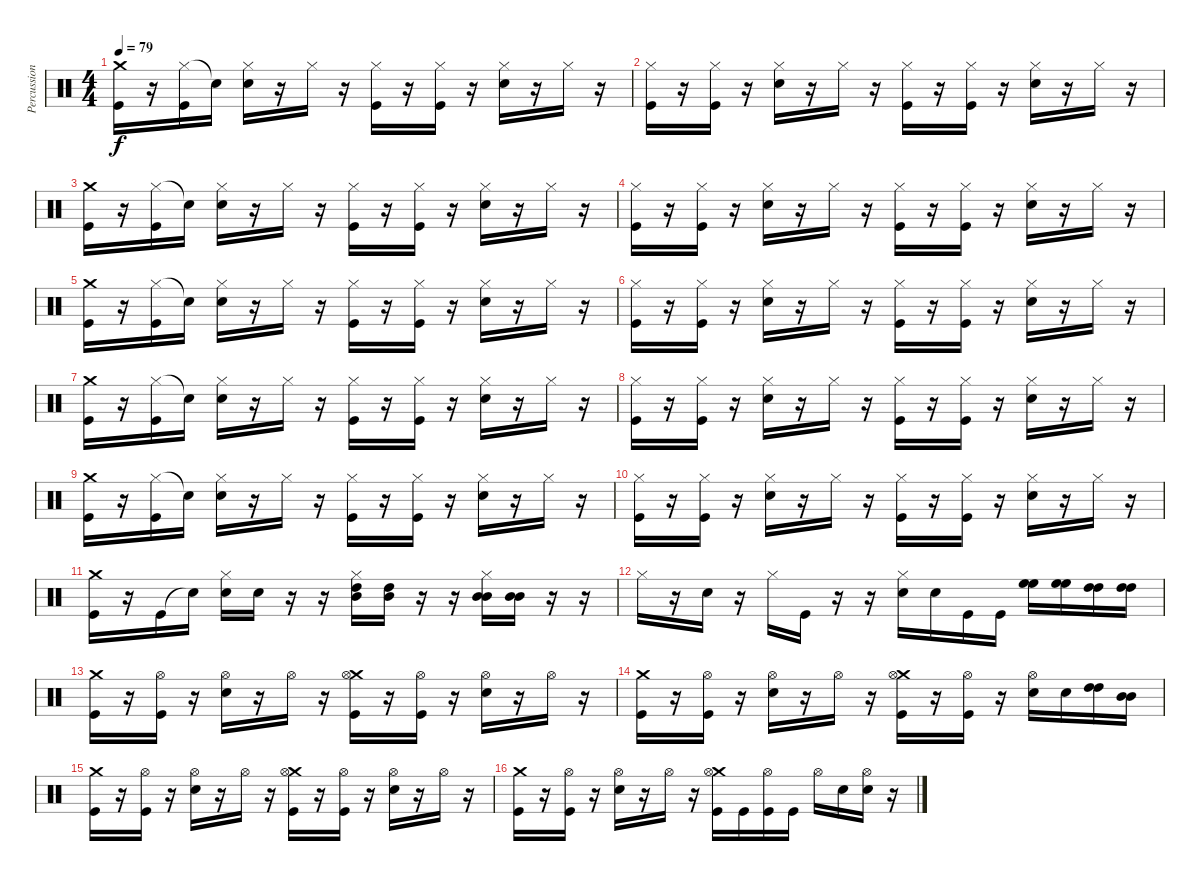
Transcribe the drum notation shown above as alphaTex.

\track ("Percussion" "Percussion") {instrument percussion}
\staff {score}
\articulation defaults
\ts (4 4)
\tempo 79
\clef neutral
\ks c
("Crash medium (hit)" "Kick (hit)").16{dy f} r.16 ("Hi-Hat (closed)" "Kick (hit)").16 "Snare (hit)"{t}.16 ("Hi-Hat (closed)" "Electric Snare (hit)").16 r.16 "Hi-Hat (closed)".16 r.16 ("Hi-Hat (closed)" "Kick (hit)").16 r.16 ("Hi-Hat (closed)" "Kick (hit)").16 r.16 ("Hi-Hat (closed)" "Electric Snare (hit)").16 r.16 "Hi-Hat (closed)".16 r.16 |
("Hi-Hat (closed)" "Kick (hit)").16 r.16 ("Hi-Hat (closed)" "Kick (hit)").16 r.16 ("Hi-Hat (closed)" "Electric Snare (hit)").16 r.16 "Hi-Hat (closed)".16 r.16 ("Hi-Hat (closed)" "Kick (hit)").16 r.16 ("Hi-Hat (closed)" "Kick (hit)").16 r.16 ("Hi-Hat (closed)" "Electric Snare (hit)").16 r.16 "Hi-Hat (closed)".16 r.16 |
("Crash medium (hit)" "Kick (hit)").16 r.16 ("Hi-Hat (closed)" "Kick (hit)").16 "Snare (hit)"{t}.16 ("Hi-Hat (closed)" "Electric Snare (hit)").16 r.16 "Hi-Hat (closed)".16 r.16 ("Hi-Hat (closed)" "Kick (hit)").16 r.16 ("Hi-Hat (closed)" "Kick (hit)").16 r.16 ("Hi-Hat (closed)" "Electric Snare (hit)").16 r.16 "Hi-Hat (closed)".16 r.16 |
("Hi-Hat (closed)" "Kick (hit)").16 r.16 ("Hi-Hat (closed)" "Kick (hit)").16 r.16 ("Hi-Hat (closed)" "Electric Snare (hit)").16 r.16 "Hi-Hat (closed)".16 r.16 ("Hi-Hat (closed)" "Kick (hit)").16 r.16 ("Hi-Hat (closed)" "Kick (hit)").16 r.16 ("Hi-Hat (closed)" "Electric Snare (hit)").16 r.16 "Hi-Hat (closed)".16 r.16 |
("Crash medium (hit)" "Kick (hit)").16 r.16 ("Hi-Hat (closed)" "Kick (hit)").16 "Snare (hit)"{t}.16 ("Hi-Hat (closed)" "Electric Snare (hit)").16 r.16 "Hi-Hat (closed)".16 r.16 ("Hi-Hat (closed)" "Kick (hit)").16 r.16 ("Hi-Hat (closed)" "Kick (hit)").16 r.16 ("Hi-Hat (closed)" "Electric Snare (hit)").16 r.16 "Hi-Hat (closed)".16 r.16 |
("Hi-Hat (closed)" "Kick (hit)").16 r.16 ("Hi-Hat (closed)" "Kick (hit)").16 r.16 ("Hi-Hat (closed)" "Electric Snare (hit)").16 r.16 "Hi-Hat (closed)".16 r.16 ("Hi-Hat (closed)" "Kick (hit)").16 r.16 ("Hi-Hat (closed)" "Kick (hit)").16 r.16 ("Hi-Hat (closed)" "Electric Snare (hit)").16 r.16 "Hi-Hat (closed)".16 r.16 |
("Crash medium (hit)" "Kick (hit)").16 r.16 ("Hi-Hat (closed)" "Kick (hit)").16 "Snare (hit)"{t}.16 ("Hi-Hat (closed)" "Electric Snare (hit)").16 r.16 "Hi-Hat (closed)".16 r.16 ("Hi-Hat (closed)" "Kick (hit)").16 r.16 ("Hi-Hat (closed)" "Kick (hit)").16 r.16 ("Hi-Hat (closed)" "Electric Snare (hit)").16 r.16 "Hi-Hat (closed)".16 r.16 |
("Hi-Hat (closed)" "Kick (hit)").16 r.16 ("Hi-Hat (closed)" "Kick (hit)").16 r.16 ("Hi-Hat (closed)" "Electric Snare (hit)").16 r.16 "Hi-Hat (closed)".16 r.16 ("Hi-Hat (closed)" "Kick (hit)").16 r.16 ("Hi-Hat (closed)" "Kick (hit)").16 r.16 ("Hi-Hat (closed)" "Electric Snare (hit)").16 r.16 "Hi-Hat (closed)".16 r.16 |
("Crash medium (hit)" "Kick (hit)").16 r.16 ("Hi-Hat (closed)" "Kick (hit)").16 "Snare (hit)"{t}.16 ("Hi-Hat (closed)" "Electric Snare (hit)").16 r.16 "Hi-Hat (closed)".16 r.16 ("Hi-Hat (closed)" "Kick (hit)").16 r.16 ("Hi-Hat (closed)" "Kick (hit)").16 r.16 ("Hi-Hat (closed)" "Electric Snare (hit)").16 r.16 "Hi-Hat (closed)".16 r.16 |
("Hi-Hat (closed)" "Kick (hit)").16 r.16 ("Hi-Hat (closed)" "Kick (hit)").16 r.16 ("Hi-Hat (closed)" "Electric Snare (hit)").16 r.16 "Hi-Hat (closed)".16 r.16 ("Hi-Hat (closed)" "Kick (hit)").16 r.16 ("Hi-Hat (closed)" "Kick (hit)").16 r.16 ("Hi-Hat (closed)" "Electric Snare (hit)").16 r.16 "Hi-Hat (closed)".16 r.16 |
("Crash medium (hit)" "Kick (hit)").16 r.16 "Kick (hit)".16 "Snare (hit)"{t}.16 ("Hi-Hat (closed)" "Electric Snare (hit)").16 "Electric Snare (hit)".16 r.16 r.16 ("Hi-Hat (closed)" "High Tom (hit)" "Mid Tom (hit)").16{bd 480} ("High Tom (hit)" "Mid Tom (hit)").16{bd 480} r.16 r.16 ("Hi-Hat (closed)" "Mid Tom (hit)" "Mid Tom (hit)").16{bd 480} ("Mid Tom (hit)" "Mid Tom (hit)").16{bd 480} r.16 r.16 |
"Hi-Hat (closed)".16 r.16 "Electric Snare (hit)".16 r.16 "Hi-Hat (closed)".16 "Kick (hit)".16 r.16 r.16 ("Hi-Hat (closed)" "Electric Snare (hit)").16 "Electric Snare (hit)".16 "Kick (hit)".16 "Kick (hit)".16 ("High Floor Tom (hit)" "High Floor Tom (hit)").16 ("High Floor Tom (hit)" "High Floor Tom (hit)").16 ("High Tom (hit)" "High Tom (hit)").16 ("High Tom (hit)" "High Tom (hit)").16 |
("Crash medium (hit)" "Kick (hit)").16 r.16 ("Hi-Hat (open)" "Kick (hit)").16 r.16 ("Hi-Hat (open)" "Electric Snare (hit)").16 r.16 "Hi-Hat (open)".16 r.16 ("Crash medium (hit)" "Hi-Hat (open)" "Kick (hit)").16 r.16 ("Hi-Hat (open)" "Kick (hit)").16 r.16 ("Hi-Hat (open)" "Electric Snare (hit)").16 r.16 "Hi-Hat (open)".16 r.16 |
("Crash medium (hit)" "Kick (hit)").16 r.16 ("Hi-Hat (open)" "Kick (hit)").16 r.16 ("Hi-Hat (open)" "Electric Snare (hit)").16 r.16 "Hi-Hat (open)".16 r.16 ("Crash medium (hit)" "Hi-Hat (open)" "Kick (hit)").16 r.16 ("Hi-Hat (open)" "Kick (hit)").16 r.16 ("Hi-Hat (open)" "Electric Snare (hit)").16 "Electric Snare (hit)".16 ("High Tom (hit)" "High Tom (hit)").16 ("Mid Tom (hit)" "Mid Tom (hit)").16 |
("Crash medium (hit)" "Kick (hit)").16 r.16 ("Hi-Hat (open)" "Kick (hit)").16 r.16 ("Hi-Hat (open)" "Electric Snare (hit)").16 r.16 "Hi-Hat (open)".16 r.16 ("Crash medium (hit)" "Hi-Hat (open)" "Kick (hit)").16 r.16 ("Hi-Hat (open)" "Kick (hit)").16 r.16 ("Hi-Hat (open)" "Electric Snare (hit)").16 r.16 "Hi-Hat (open)".16 r.16 |
("Crash medium (hit)" "Kick (hit)").16 r.16 ("Hi-Hat (open)" "Kick (hit)").16 r.16 ("Hi-Hat (open)" "Electric Snare (hit)").16 r.16 "Hi-Hat (open)".16 r.16 ("Crash medium (hit)" "Hi-Hat (open)" "Kick (hit)").16 "Kick (hit)".16 ("Hi-Hat (open)" "Kick (hit)").16 "Kick (hit)".16 "Hi-Hat (open)".16 "Electric Snare (hit)".16 ("Hi-Hat (open)" "Electric Snare (hit)").16 r.16
